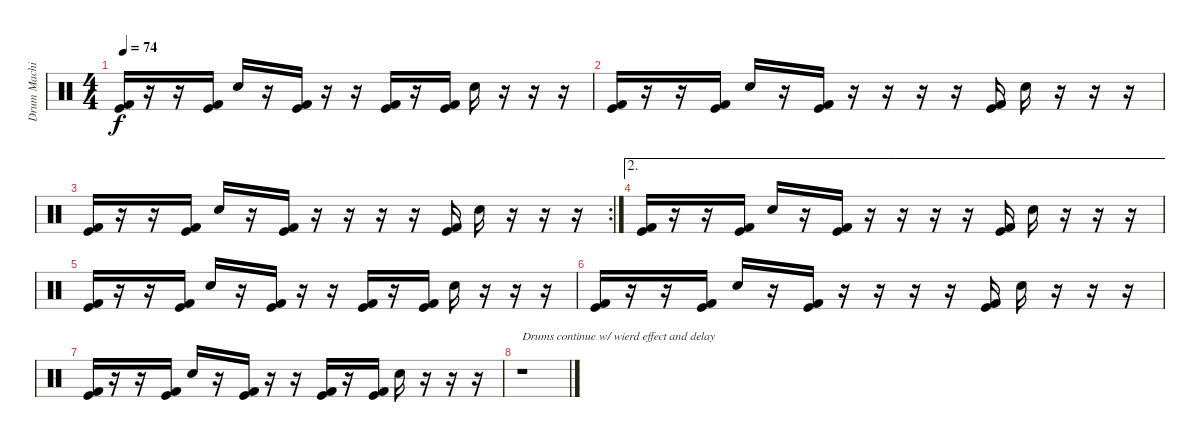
\track ("Drum Machine" "Drum Machi") {instrument percussion}
\staff {score}
\articulation defaults
\ts (4 4)
\tempo 74
\clef neutral
\ks c
("Kick (hit) 2" "Kick (hit)").16{dy f} r.16 r.16 ("Kick (hit) 2" "Kick (hit)").16 "Snare (hit) 2".16 r.16 ("Kick (hit) 2" "Kick (hit)").16 r.16 r.16 ("Kick (hit) 2" "Kick (hit)").16 r.16 ("Kick (hit) 2" "Kick (hit)").16 "Snare (hit) 2".16 r.16 r.16 r.16 |
("Kick (hit) 2" "Kick (hit)").16 r.16 r.16 ("Kick (hit) 2" "Kick (hit)").16 "Snare (hit) 2".16 r.16 ("Kick (hit) 2" "Kick (hit)").16 r.16 r.16 r.16 r.16 ("Kick (hit) 2" "Kick (hit)").16 "Snare (hit) 2".16 r.16 r.16 r.16 |
\rc 2
("Kick (hit) 2" "Kick (hit)").16 r.16 r.16 ("Kick (hit) 2" "Kick (hit)").16 "Snare (hit) 2".16 r.16 ("Kick (hit) 2" "Kick (hit)").16 r.16 r.16 r.16 r.16 ("Kick (hit) 2" "Kick (hit)").16 "Snare (hit) 2".16 r.16 r.16 r.16 |
\ae 2
("Kick (hit) 2" "Kick (hit)").16 r.16 r.16 ("Kick (hit) 2" "Kick (hit)").16 "Snare (hit) 2".16 r.16 ("Kick (hit) 2" "Kick (hit)").16 r.16 r.16 r.16 r.16 ("Kick (hit) 2" "Kick (hit)").16 "Snare (hit) 2".16 r.16 r.16 r.16 |
("Kick (hit) 2" "Kick (hit)").16 r.16 r.16 ("Kick (hit) 2" "Kick (hit)").16 "Snare (hit) 2".16 r.16 ("Kick (hit) 2" "Kick (hit)").16 r.16 r.16 ("Kick (hit) 2" "Kick (hit)").16 r.16 ("Kick (hit) 2" "Kick (hit)").16 "Snare (hit) 2".16 r.16 r.16 r.16 |
("Kick (hit) 2" "Kick (hit)").16 r.16 r.16 ("Kick (hit) 2" "Kick (hit)").16 "Snare (hit) 2".16 r.16 ("Kick (hit) 2" "Kick (hit)").16 r.16 r.16 r.16 r.16 ("Kick (hit) 2" "Kick (hit)").16 "Snare (hit) 2".16 r.16 r.16 r.16 |
("Kick (hit) 2" "Kick (hit)").16 r.16 r.16 ("Kick (hit) 2" "Kick (hit)").16 "Snare (hit) 2".16 r.16 ("Kick (hit) 2" "Kick (hit)").16 r.16 r.16 ("Kick (hit) 2" "Kick (hit)").16 r.16 ("Kick (hit) 2" "Kick (hit)").16 "Snare (hit) 2".16 r.16 r.16 r.16 |
r.1{txt "Drums continue w/ wierd effect and delay"}
